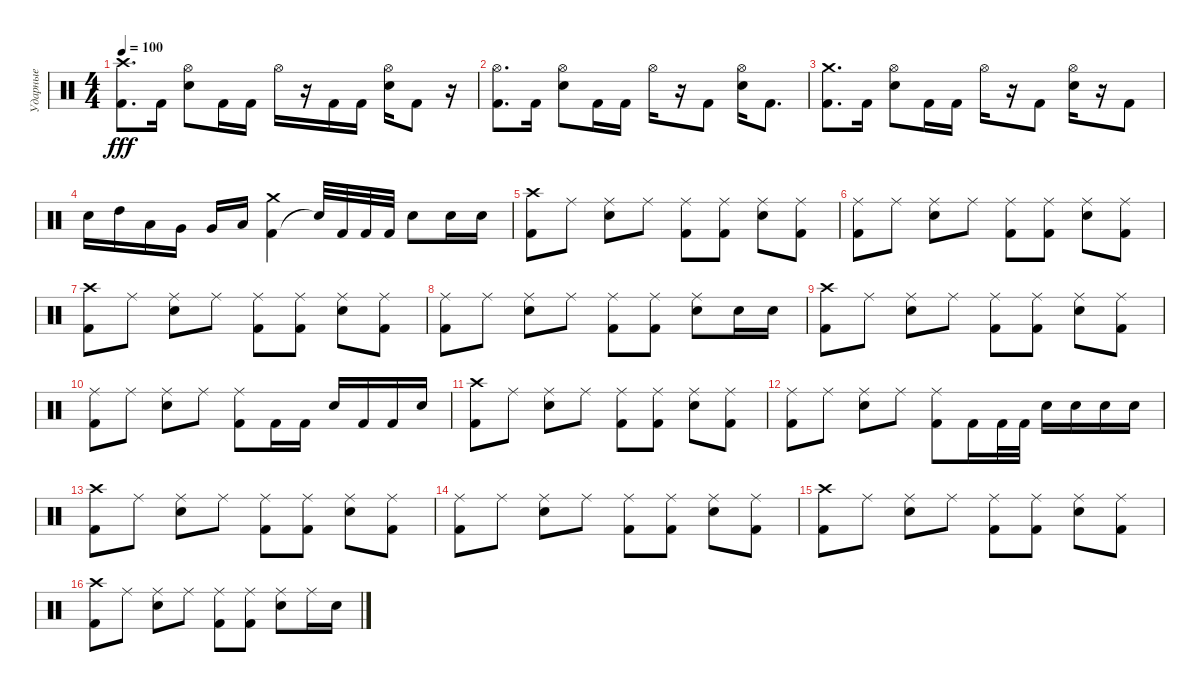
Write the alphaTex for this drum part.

\track ("Ударные" "Ударные") {instrument percussion}
\staff {score}
\articulation defaults
\ts (4 4)
\tempo 100
\clef neutral
\ks c
("Kick (hit) 2" "Crash high (hit)").8{d dy fff} "Kick (hit) 2".16 ("Electric Snare (hit)" "Hi-Hat (open)").8 "Kick (hit) 2".16 "Kick (hit) 2".16 "Hi-Hat (open)".16 r.16 "Kick (hit) 2".16 "Kick (hit) 2".16 ("Electric Snare (hit)" "Hi-Hat (open)").16 "Kick (hit) 2".8 r.16 |
("Kick (hit) 2" "Hi-Hat (open)").8{d} "Kick (hit) 2".16 ("Electric Snare (hit)" "Hi-Hat (open)").8 "Kick (hit) 2".16 "Kick (hit) 2".16 "Hi-Hat (open)".16 r.16 "Kick (hit) 2".8 ("Electric Snare (hit)" "Hi-Hat (open)").16 "Kick (hit) 2".8{d} |
("Kick (hit) 2" "Crash medium (hit)").8{d} "Kick (hit) 2".16 ("Electric Snare (hit)" "Hi-Hat (open)").8 "Kick (hit) 2".16 "Kick (hit) 2".16 "Hi-Hat (open)".16 r.16 "Kick (hit) 2".8 ("Electric Snare (hit)" "Hi-Hat (open)").16 r.16 "Kick (hit) 2".8 |
"Electric Snare (hit)".16 "High Tom (hit)".16 "Low Tom (hit)".16 "Very Low Tom (hit)".16 "Very Low Tom (hit)".16 "Low Floor Tom (hit)".16 ("Kick (hit) 2" "Crash medium (hit)").4 "Snare (hit)"{t}.32 "Kick (hit) 2".32 "Kick (hit) 2".32 "Kick (hit) 2".32 "Electric Snare (hit)".8 "Electric Snare (hit)".16 "Electric Snare (hit)".16 |
("Kick (hit) 2" "Crash high (hit)").8 "Ride (middle)".8 ("Electric Snare (hit)" "Ride (middle)").8 "Ride (middle)".8 ("Kick (hit) 2" "Ride (middle)").8 ("Kick (hit) 2" "Ride (middle)").8 ("Electric Snare (hit)" "Ride (middle)").8 ("Kick (hit) 2" "Ride (middle)").8 |
("Kick (hit) 2" "Ride (middle)").8 "Ride (middle)".8 ("Electric Snare (hit)" "Ride (middle)").8 "Ride (middle)".8 ("Kick (hit) 2" "Ride (middle)").8 ("Kick (hit) 2" "Ride (middle)").8 ("Electric Snare (hit)" "Ride (middle)").8 ("Ride (middle)" "Kick (hit) 2").8 |
("Kick (hit) 2" "Crash high (hit)").8 "Ride (middle)".8 ("Electric Snare (hit)" "Ride (middle)").8 "Ride (middle)".8 ("Kick (hit) 2" "Ride (middle)").8 ("Kick (hit) 2" "Ride (middle)").8 ("Electric Snare (hit)" "Ride (middle)").8 ("Ride (middle)" "Kick (hit) 2").8 |
("Kick (hit) 2" "Ride (middle)").8 "Ride (middle)".8 ("Electric Snare (hit)" "Ride (middle)").8 "Ride (middle)".8 ("Kick (hit) 2" "Ride (middle)").8 ("Kick (hit) 2" "Ride (middle)").8 ("Electric Snare (hit)" "Ride (middle)").8 "Electric Snare (hit)".16 "Electric Snare (hit)".16 |
("Kick (hit) 2" "Crash high (hit)").8 "Ride (middle)".8 ("Electric Snare (hit)" "Ride (middle)").8 "Ride (middle)".8 ("Kick (hit) 2" "Ride (middle)").8 ("Kick (hit) 2" "Ride (middle)").8 ("Electric Snare (hit)" "Ride (middle)").8 ("Ride (middle)" "Kick (hit) 2").8 |
("Kick (hit) 2" "Ride (middle)").8 "Ride (middle)".8 ("Electric Snare (hit)" "Ride (middle)").8 "Ride (middle)".8 ("Kick (hit) 2" "Ride (middle)").8 "Kick (hit) 2".16 "Kick (hit) 2".16 "Electric Snare (hit)".16 "Kick (hit) 2".16 "Kick (hit) 2".16 "Electric Snare (hit)".16 |
("Kick (hit) 2" "Crash high (hit)").8 "Ride (middle)".8 ("Electric Snare (hit)" "Ride (middle)").8 "Ride (middle)".8 ("Kick (hit) 2" "Ride (middle)").8 ("Kick (hit) 2" "Ride (middle)").8 ("Electric Snare (hit)" "Ride (middle)").8 ("Ride (middle)" "Kick (hit) 2").8 |
("Kick (hit) 2" "Ride (middle)").8 "Ride (middle)".8 ("Electric Snare (hit)" "Ride (middle)").8 "Ride (middle)".8 ("Kick (hit) 2" "Ride (middle)").8 "Kick (hit) 2".16 "Kick (hit) 2".32 "Kick (hit) 2".32 "Electric Snare (hit)".16 "Electric Snare (hit)".16 "Electric Snare (hit)".16 "Electric Snare (hit)".16 |
("Kick (hit) 2" "Crash high (hit)").8 "Ride (middle)".8 ("Electric Snare (hit)" "Ride (middle)").8 "Ride (middle)".8 ("Kick (hit) 2" "Ride (middle)").8 ("Kick (hit) 2" "Ride (middle)").8 ("Electric Snare (hit)" "Ride (middle)").8 ("Ride (middle)" "Kick (hit) 2").8 |
("Kick (hit) 2" "Ride (middle)").8 "Ride (middle)".8 ("Electric Snare (hit)" "Ride (middle)").8 "Ride (middle)".8 ("Kick (hit) 2" "Ride (middle)").8 ("Kick (hit) 2" "Ride (middle)").8 ("Electric Snare (hit)" "Ride (middle)").8 ("Ride (middle)" "Kick (hit) 2").8 |
("Kick (hit) 2" "Crash high (hit)").8 "Ride (middle)".8 ("Electric Snare (hit)" "Ride (middle)").8 "Ride (middle)".8 ("Kick (hit) 2" "Ride (middle)").8 ("Kick (hit) 2" "Ride (middle)").8 ("Electric Snare (hit)" "Ride (middle)").8 ("Ride (middle)" "Kick (hit) 2").8 |
("Kick (hit) 2" "Crash high (hit)").8 "Ride (middle)".8 ("Electric Snare (hit)" "Ride (middle)").8 "Ride (middle)".8 ("Kick (hit) 2" "Ride (middle)").8 ("Kick (hit) 2" "Ride (middle)").8 ("Electric Snare (hit)" "Ride (middle)").8 "Ride (middle)".16 "Electric Snare (hit)".16
